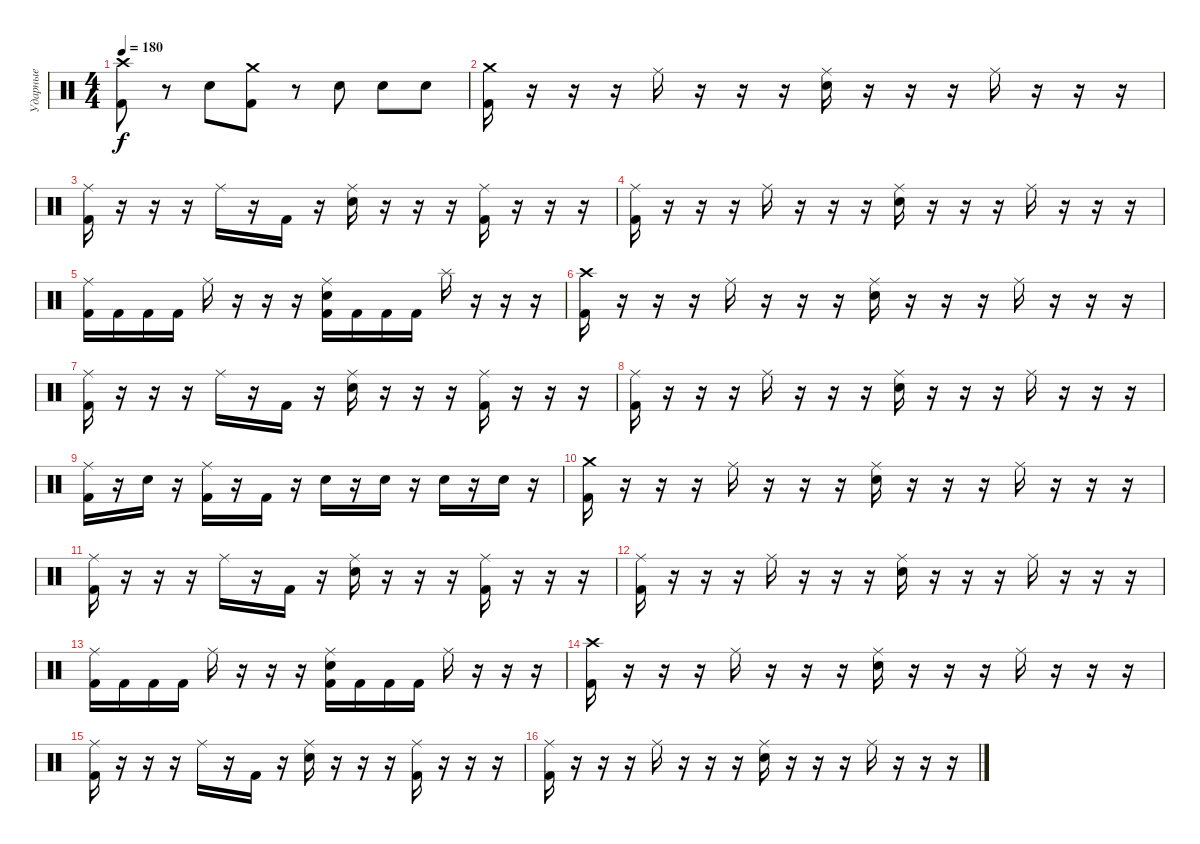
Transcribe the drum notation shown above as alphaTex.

\track ("Ударные" "Ударные") {instrument percussion}
\staff {score}
\articulation defaults
\ts (4 4)
\tempo 180
\clef neutral
\ks c
("Kick (hit) 2" "Crash high (hit)").8{dy f} r.8 "Electric Snare (hit)".8 ("Kick (hit) 2" "Crash medium (hit)").8 r.8 "Electric Snare (hit)".8 "Electric Snare (hit)".8 "Electric Snare (hit)".8 |
("Kick (hit) 2" "Crash medium (hit)").16 r.16 r.16 r.16 "Ride (middle)".16 r.16 r.16 r.16 ("Electric Snare (hit)" "Ride (middle)").16 r.16 r.16 r.16 "Ride (middle)".16 r.16 r.16 r.16 |
("Kick (hit) 2" "Ride (middle)").16 r.16 r.16 r.16 "Ride (middle)".16 r.16 "Kick (hit) 2".16 r.16 ("Electric Snare (hit)" "Ride (middle)").16 r.16 r.16 r.16 ("Kick (hit) 2" "Ride (middle)").16 r.16 r.16 r.16 |
("Kick (hit) 2" "Ride (middle)").16 r.16 r.16 r.16 "Ride (middle)".16 r.16 r.16 r.16 ("Electric Snare (hit)" "Ride (middle)").16 r.16 r.16 r.16 "Ride (middle)".16 r.16 r.16 r.16 |
("Kick (hit) 2" "Ride (middle)").16 "Kick (hit) 2".16 "Kick (hit) 2".16 "Kick (hit) 2".16 "Ride (middle)".16 r.16 r.16 r.16 ("Kick (hit) 2" "Electric Snare (hit)" "Ride (middle)").16 "Kick (hit) 2".16 "Kick (hit) 2".16 "Kick (hit) 2".16 "Splash (hit)".16 r.16 r.16 r.16 |
("Kick (hit) 2" "Crash high (hit)").16 r.16 r.16 r.16 "Ride (middle)".16 r.16 r.16 r.16 ("Electric Snare (hit)" "Ride (middle)").16 r.16 r.16 r.16 "Ride (middle)".16 r.16 r.16 r.16 |
("Kick (hit) 2" "Ride (middle)").16 r.16 r.16 r.16 "Ride (middle)".16 r.16 "Kick (hit) 2".16 r.16 ("Electric Snare (hit)" "Ride (middle)").16 r.16 r.16 r.16 ("Kick (hit) 2" "Ride (middle)").16 r.16 r.16 r.16 |
("Kick (hit) 2" "Ride (middle)").16 r.16 r.16 r.16 "Ride (middle)".16 r.16 r.16 r.16 ("Electric Snare (hit)" "Ride (middle)").16 r.16 r.16 r.16 "Ride (middle)".16 r.16 r.16 r.16 |
("Kick (hit) 2" "Ride (middle)").16 r.16 "Electric Snare (hit)".16 r.16 ("Kick (hit) 2" "Ride (middle)").16 r.16 "Kick (hit) 2".16 r.16 "Electric Snare (hit)".16 r.16 "Electric Snare (hit)".16 r.16 "Electric Snare (hit)".16 r.16 "Electric Snare (hit)".16 r.16 |
("Kick (hit) 2" "Crash medium (hit)").16 r.16 r.16 r.16 "Ride (middle)".16 r.16 r.16 r.16 ("Electric Snare (hit)" "Ride (middle)").16 r.16 r.16 r.16 "Ride (middle)".16 r.16 r.16 r.16 |
("Kick (hit) 2" "Ride (middle)").16 r.16 r.16 r.16 "Ride (middle)".16 r.16 "Kick (hit) 2".16 r.16 ("Electric Snare (hit)" "Ride (middle)").16 r.16 r.16 r.16 ("Kick (hit) 2" "Ride (middle)").16 r.16 r.16 r.16 |
("Kick (hit) 2" "Ride (middle)").16 r.16 r.16 r.16 "Ride (middle)".16 r.16 r.16 r.16 ("Electric Snare (hit)" "Ride (middle)").16 r.16 r.16 r.16 "Ride (middle)".16 r.16 r.16 r.16 |
("Kick (hit) 2" "Ride (middle)").16 "Kick (hit) 2".16 "Kick (hit) 2".16 "Kick (hit) 2".16 "Ride (middle)".16 r.16 r.16 r.16 ("Kick (hit) 2" "Electric Snare (hit)" "Ride (middle)").16 "Kick (hit) 2".16 "Kick (hit) 2".16 "Kick (hit) 2".16 "Ride (middle)".16 r.16 r.16 r.16 |
("Kick (hit) 2" "Crash high (hit)").16 r.16 r.16 r.16 "Ride (middle)".16 r.16 r.16 r.16 ("Electric Snare (hit)" "Ride (middle)").16 r.16 r.16 r.16 "Ride (middle)".16 r.16 r.16 r.16 |
("Kick (hit) 2" "Ride (middle)").16 r.16 r.16 r.16 "Ride (middle)".16 r.16 "Kick (hit) 2".16 r.16 ("Electric Snare (hit)" "Ride (middle)").16 r.16 r.16 r.16 ("Kick (hit) 2" "Ride (middle)").16 r.16 r.16 r.16 |
("Kick (hit) 2" "Ride (middle)").16 r.16 r.16 r.16 "Ride (middle)".16 r.16 r.16 r.16 ("Electric Snare (hit)" "Ride (middle)").16 r.16 r.16 r.16 "Ride (middle)".16 r.16 r.16 r.16
